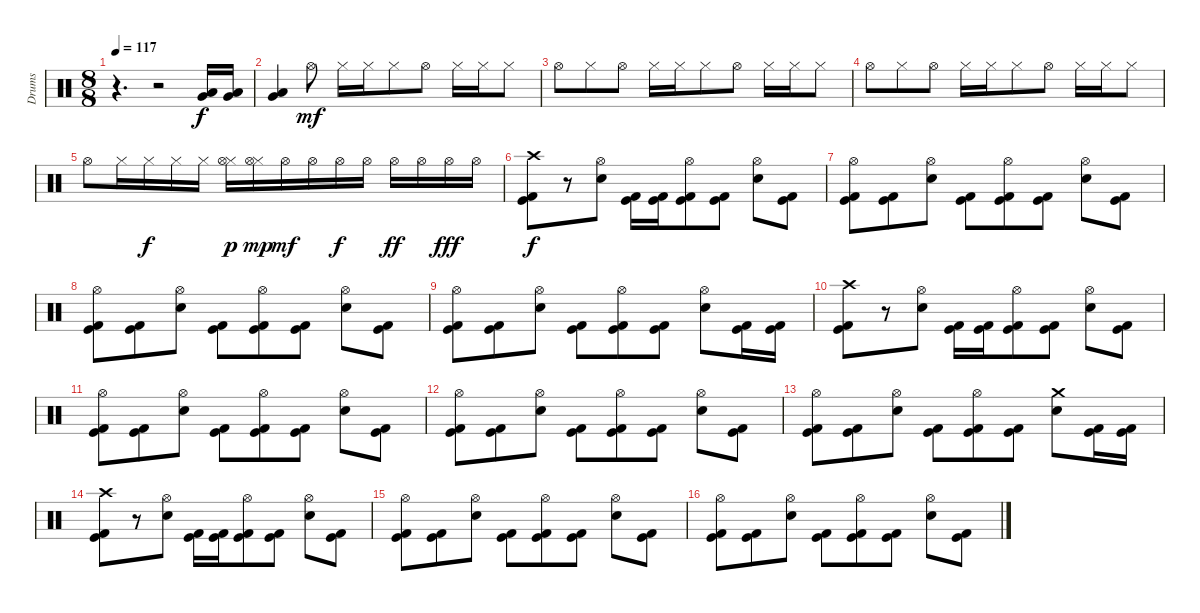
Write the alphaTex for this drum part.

\track ("Drums" "Drums") {instrument percussion}
\staff {score}
\articulation defaults
\ts (8 8)
\tempo 117
\clef neutral
\ks c
r.4{d dy ppp} r.2 ("Very Low Tom (hit)" "Low Tom (hit)").16{dy f} ("Very Low Tom (hit)" "Low Tom (hit)").16 |
("Very Low Tom (hit)" "Low Floor Tom (hit)").4 "Hi-Hat (open)".8{dy mf} "Hi-Hat (closed)".16 "Hi-Hat (closed)".16 "Hi-Hat (closed)".8 "Hi-Hat (open)".8 "Hi-Hat (closed)".16 "Hi-Hat (closed)".16 "Hi-Hat (closed)".8 |
"Hi-Hat (open)".8 "Hi-Hat (closed)".8 "Hi-Hat (open)".8 "Hi-Hat (closed)".16 "Hi-Hat (closed)".16 "Hi-Hat (closed)".8 "Hi-Hat (open)".8 "Hi-Hat (closed)".16 "Hi-Hat (closed)".16 "Hi-Hat (closed)".8 |
"Hi-Hat (open)".8 "Hi-Hat (closed)".8 "Hi-Hat (open)".8 "Hi-Hat (closed)".16 "Hi-Hat (closed)".16 "Hi-Hat (closed)".8 "Hi-Hat (open)".8 "Hi-Hat (closed)".16 "Hi-Hat (closed)".16 "Hi-Hat (closed)".8 |
"Hi-Hat (open)".8 "Hi-Hat (closed)".16 "Hi-Hat (closed)".16{dy f} "Hi-Hat (closed)".16 "Hi-Hat (closed)".16 ("Hi-Hat (closed)" "Hi-Hat (open)").16{dy p} ("Hi-Hat (closed)" "Hi-Hat (open)").16{dy mp} "Hi-Hat (open)".16{dy mf} "Hi-Hat (open)".16 "Hi-Hat (open)".16{dy f} "Hi-Hat (open)".16 "Hi-Hat (open)".16{dy ff} "Hi-Hat (open)".16 "Hi-Hat (open)".16{dy fff} "Hi-Hat (open)".16 |
("Crash high (hit)" "Kick (hit)" "Kick (hit) 2").8{dy f} r.8 ("Hi-Hat (open)" "Electric Snare (hit)").8 ("Kick (hit)" "Kick (hit) 2").16 ("Kick (hit)" "Kick (hit) 2").16 ("Hi-Hat (open)" "Kick (hit)" "Kick (hit) 2").8 ("Kick (hit)" "Kick (hit) 2").8 ("Hi-Hat (open)" "Electric Snare (hit)").8 ("Kick (hit)" "Kick (hit) 2").8 |
("Hi-Hat (open)" "Kick (hit)" "Kick (hit) 2").8 ("Kick (hit)" "Kick (hit) 2").8 ("Hi-Hat (open)" "Electric Snare (hit)").8 ("Kick (hit)" "Kick (hit) 2").8 ("Hi-Hat (open)" "Kick (hit)" "Kick (hit) 2").8 ("Kick (hit)" "Kick (hit) 2").8 ("Hi-Hat (open)" "Electric Snare (hit)").8 ("Kick (hit)" "Kick (hit) 2").8 |
("Hi-Hat (open)" "Kick (hit)" "Kick (hit) 2").8 ("Kick (hit)" "Kick (hit) 2").8 ("Hi-Hat (open)" "Electric Snare (hit)").8 ("Kick (hit)" "Kick (hit) 2").8 ("Hi-Hat (open)" "Kick (hit)" "Kick (hit) 2").8 ("Kick (hit)" "Kick (hit) 2").8 ("Hi-Hat (open)" "Electric Snare (hit)").8 ("Kick (hit)" "Kick (hit) 2").8 |
("Hi-Hat (open)" "Kick (hit)" "Kick (hit) 2").8 ("Kick (hit)" "Kick (hit) 2").8 ("Hi-Hat (open)" "Electric Snare (hit)").8 ("Kick (hit)" "Kick (hit) 2").8 ("Hi-Hat (open)" "Kick (hit)" "Kick (hit) 2").8 ("Kick (hit)" "Kick (hit) 2").8 ("Hi-Hat (open)" "Electric Snare (hit)").8 ("Kick (hit)" "Kick (hit) 2").16 ("Kick (hit)" "Kick (hit) 2").16 |
("Crash high (hit)" "Kick (hit)" "Kick (hit) 2").8 r.8 ("Hi-Hat (open)" "Electric Snare (hit)").8 ("Kick (hit)" "Kick (hit) 2").16 ("Kick (hit)" "Kick (hit) 2").16 ("Hi-Hat (open)" "Kick (hit)" "Kick (hit) 2").8 ("Kick (hit)" "Kick (hit) 2").8 ("Hi-Hat (open)" "Electric Snare (hit)").8 ("Kick (hit)" "Kick (hit) 2").8 |
("Hi-Hat (open)" "Kick (hit)" "Kick (hit) 2").8 ("Kick (hit)" "Kick (hit) 2").8 ("Hi-Hat (open)" "Electric Snare (hit)").8 ("Kick (hit)" "Kick (hit) 2").8 ("Hi-Hat (open)" "Kick (hit)" "Kick (hit) 2").8 ("Kick (hit)" "Kick (hit) 2").8 ("Hi-Hat (open)" "Electric Snare (hit)").8 ("Kick (hit)" "Kick (hit) 2").8 |
("Hi-Hat (open)" "Kick (hit)" "Kick (hit) 2").8 ("Kick (hit)" "Kick (hit) 2").8 ("Hi-Hat (open)" "Electric Snare (hit)").8 ("Kick (hit)" "Kick (hit) 2").8 ("Hi-Hat (open)" "Kick (hit)" "Kick (hit) 2").8 ("Kick (hit)" "Kick (hit) 2").8 ("Hi-Hat (open)" "Electric Snare (hit)").8 ("Kick (hit)" "Kick (hit) 2").8 |
("Hi-Hat (open)" "Kick (hit)" "Kick (hit) 2").8 ("Kick (hit)" "Kick (hit) 2").8 ("Hi-Hat (open)" "Electric Snare (hit)").8 ("Kick (hit)" "Kick (hit) 2").8 ("Hi-Hat (open)" "Kick (hit)" "Kick (hit) 2").8 ("Kick (hit)" "Kick (hit) 2").8 ("Crash medium (hit)" "Electric Snare (hit)").8 ("Kick (hit)" "Kick (hit) 2").16 ("Kick (hit)" "Kick (hit) 2").16 |
("Crash high (hit)" "Kick (hit)" "Kick (hit) 2").8 r.8 ("Hi-Hat (open)" "Electric Snare (hit)").8 ("Kick (hit)" "Kick (hit) 2").16 ("Kick (hit)" "Kick (hit) 2").16 ("Hi-Hat (open)" "Kick (hit)" "Kick (hit) 2").8 ("Kick (hit)" "Kick (hit) 2").8 ("Hi-Hat (open)" "Electric Snare (hit)").8 ("Kick (hit)" "Kick (hit) 2").8 |
("Hi-Hat (open)" "Kick (hit)" "Kick (hit) 2").8 ("Kick (hit)" "Kick (hit) 2").8 ("Hi-Hat (open)" "Electric Snare (hit)").8 ("Kick (hit)" "Kick (hit) 2").8 ("Hi-Hat (open)" "Kick (hit)" "Kick (hit) 2").8 ("Kick (hit)" "Kick (hit) 2").8 ("Hi-Hat (open)" "Electric Snare (hit)").8 ("Kick (hit)" "Kick (hit) 2").8 |
("Hi-Hat (open)" "Kick (hit)" "Kick (hit) 2").8 ("Kick (hit)" "Kick (hit) 2").8 ("Hi-Hat (open)" "Electric Snare (hit)").8 ("Kick (hit)" "Kick (hit) 2").8 ("Hi-Hat (open)" "Kick (hit)" "Kick (hit) 2").8 ("Kick (hit)" "Kick (hit) 2").8 ("Hi-Hat (open)" "Electric Snare (hit)").8 ("Kick (hit)" "Kick (hit) 2").8
